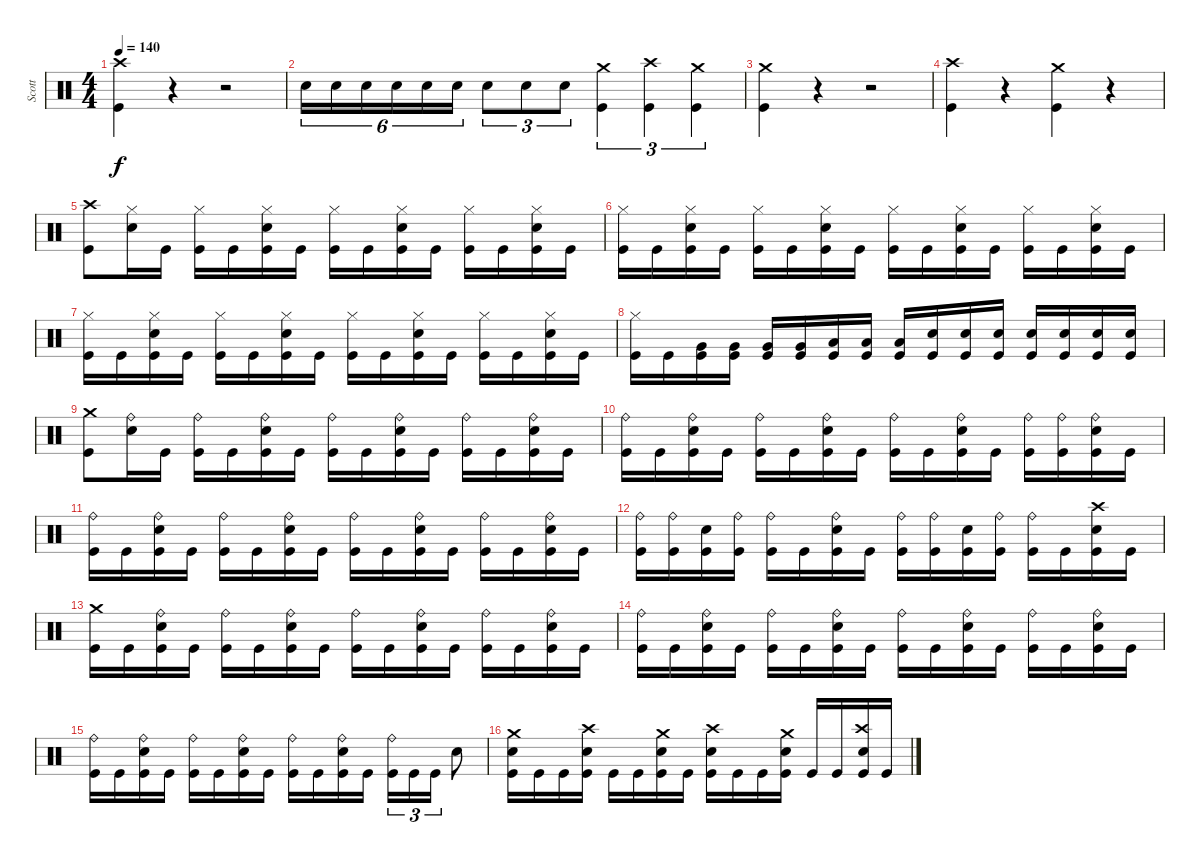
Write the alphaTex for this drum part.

\track ("Scott" "Scott") {instrument percussion}
\staff {score}
\articulation defaults
\ts (4 4)
\tempo 140
\clef neutral
\ks c
("Kick (hit)" "Crash high (hit)").4{dy f} r.4 r.2 |
"Snare (hit) 2".16{tu (6 4)} "Snare (hit) 2".16{tu (6 4)} "Snare (hit) 2".16{tu (6 4)} "Snare (hit) 2".16{tu (6 4)} "Snare (hit) 2".16{tu (6 4)} "Snare (hit) 2".16{tu (6 4)} "Snare (hit) 2".8{tu (3 2)} "Snare (hit) 2".8{tu (3 2)} "Snare (hit) 2".8{tu (3 2)} ("Kick (hit)" "Crash medium (hit)").4{tu (3 2)} ("Kick (hit)" "Crash high (hit)").4{tu (3 2)} ("Kick (hit)" "Crash medium (hit)").4{tu (3 2)} |
("Kick (hit)" "Crash medium (hit)").4 r.4 r.2 |
("Kick (hit)" "Crash high (hit)").4 r.4 ("Kick (hit)" "Crash medium (hit)").4 r.4 |
("Kick (hit)" "Crash high (hit)").8 ("Snare (hit) 2" "Hi-Hat (closed)").16 "Kick (hit)".16 ("Kick (hit)" "Hi-Hat (closed)").16 "Kick (hit)".16 ("Kick (hit)" "Snare (hit) 2" "Hi-Hat (closed)").16 "Kick (hit)".16 ("Kick (hit)" "Hi-Hat (closed)").16 "Kick (hit)".16 ("Kick (hit)" "Snare (hit) 2" "Hi-Hat (closed)").16 "Kick (hit)".16 ("Kick (hit)" "Hi-Hat (closed)").16 "Kick (hit)".16 ("Kick (hit)" "Snare (hit) 2" "Hi-Hat (closed)").16 "Kick (hit)".16 |
("Kick (hit)" "Hi-Hat (closed)").16 "Kick (hit)".16 ("Kick (hit)" "Snare (hit) 2" "Hi-Hat (closed)").16 "Kick (hit)".16 ("Kick (hit)" "Hi-Hat (closed)").16 "Kick (hit)".16 ("Kick (hit)" "Snare (hit) 2" "Hi-Hat (closed)").16 "Kick (hit)".16 ("Kick (hit)" "Hi-Hat (closed)").16 "Kick (hit)".16 ("Kick (hit)" "Snare (hit) 2" "Hi-Hat (closed)").16 "Kick (hit)".16 ("Kick (hit)" "Hi-Hat (closed)").16 "Kick (hit)".16 ("Kick (hit)" "Snare (hit) 2" "Hi-Hat (closed)").16 "Kick (hit)".16 |
("Kick (hit)" "Hi-Hat (closed)").16 "Kick (hit)".16 ("Kick (hit)" "Snare (hit) 2" "Hi-Hat (closed)").16 "Kick (hit)".16 ("Kick (hit)" "Hi-Hat (closed)").16 "Kick (hit)".16 ("Kick (hit)" "Snare (hit) 2" "Hi-Hat (closed)").16 "Kick (hit)".16 ("Kick (hit)" "Hi-Hat (closed)").16 "Kick (hit)".16 ("Kick (hit)" "Snare (hit) 2" "Hi-Hat (closed)").16 "Kick (hit)".16 ("Kick (hit)" "Hi-Hat (closed)").16 "Kick (hit)".16 ("Kick (hit)" "Snare (hit) 2" "Hi-Hat (closed)").16 "Kick (hit)".16 |
("Kick (hit)" "Hi-Hat (closed)").16 "Kick (hit)".16 ("Kick (hit)" "Very Low Tom (hit)").16 ("Kick (hit)" "Very Low Tom (hit)").16 ("Kick (hit)" "Very Low Tom (hit)").16 ("Kick (hit)" "Very Low Tom (hit)").16 ("Kick (hit)" "Low Tom (hit)").16 ("Kick (hit)" "Low Tom (hit)").16 ("Kick (hit)" "Low Tom (hit)").16 ("Kick (hit)" "Snare (hit) 2").16 ("Kick (hit)" "Snare (hit) 2").16 ("Kick (hit)" "Snare (hit) 2").16 ("Kick (hit)" "Snare (hit) 2").16 ("Kick (hit)" "Snare (hit) 2").16 ("Kick (hit)" "Snare (hit) 2").16 ("Kick (hit)" "Snare (hit) 2").16 |
("Kick (hit)" "Crash medium (hit)").8 ("Snare (hit) 2" "Ride (bell)").16 "Kick (hit)".16 ("Kick (hit)" "Ride (bell)").16 "Kick (hit)".16 ("Kick (hit)" "Snare (hit) 2" "Ride (bell)").16 "Kick (hit)".16 ("Kick (hit)" "Ride (bell)").16 "Kick (hit)".16 ("Kick (hit)" "Snare (hit) 2" "Ride (bell)").16 "Kick (hit)".16 ("Kick (hit)" "Ride (bell)").16 "Kick (hit)".16 ("Kick (hit)" "Snare (hit) 2" "Ride (bell)").16 "Kick (hit)".16 |
("Kick (hit)" "Ride (bell)").16 "Kick (hit)".16 ("Kick (hit)" "Snare (hit) 2" "Ride (bell)").16 "Kick (hit)".16 ("Kick (hit)" "Ride (bell)").16 "Kick (hit)".16 ("Kick (hit)" "Snare (hit) 2" "Ride (bell)").16 "Kick (hit)".16 ("Kick (hit)" "Ride (bell)").16 "Kick (hit)".16 ("Kick (hit)" "Snare (hit) 2" "Ride (bell)").16 "Kick (hit)".16 ("Kick (hit)" "Ride (bell)").16 ("Kick (hit)" "Ride (bell)").16 ("Kick (hit)" "Snare (hit) 2" "Ride (bell)").16 "Kick (hit)".16 |
("Kick (hit)" "Ride (bell)").16 "Kick (hit)".16 ("Kick (hit)" "Snare (hit) 2" "Ride (bell)").16 "Kick (hit)".16 ("Kick (hit)" "Ride (bell)").16 "Kick (hit)".16 ("Kick (hit)" "Snare (hit) 2" "Ride (bell)").16 "Kick (hit)".16 ("Kick (hit)" "Ride (bell)").16 "Kick (hit)".16 ("Kick (hit)" "Snare (hit) 2" "Ride (bell)").16 "Kick (hit)".16 ("Kick (hit)" "Ride (bell)").16 "Kick (hit)".16 ("Kick (hit)" "Snare (hit) 2" "Ride (bell)").16 "Kick (hit)".16 |
("Kick (hit)" "Ride (bell)").16 ("Kick (hit)" "Ride (bell)").16 ("Kick (hit)" "Snare (hit) 2").16 ("Kick (hit)" "Ride (bell)").16 ("Kick (hit)" "Ride (bell)").16 "Kick (hit)".16 ("Kick (hit)" "Snare (hit) 2" "Ride (bell)").16 "Kick (hit)".16 ("Kick (hit)" "Ride (bell)").16 ("Kick (hit)" "Ride (bell)").16 ("Kick (hit)" "Snare (hit) 2").16 ("Kick (hit)" "Ride (bell)").16 ("Kick (hit)" "Ride (bell)").16 "Kick (hit)".16 ("Kick (hit)" "Snare (hit) 2" "Crash high (hit)").16 "Kick (hit)".16 |
("Kick (hit)" "Crash medium (hit)").16 "Kick (hit)".16 ("Kick (hit)" "Snare (hit) 2" "Ride (bell)").16 "Kick (hit)".16 ("Kick (hit)" "Ride (bell)").16 "Kick (hit)".16 ("Kick (hit)" "Snare (hit) 2" "Ride (bell)").16 "Kick (hit)".16 ("Kick (hit)" "Ride (bell)").16 "Kick (hit)".16 ("Kick (hit)" "Snare (hit) 2" "Ride (bell)").16 "Kick (hit)".16 ("Kick (hit)" "Ride (bell)").16 "Kick (hit)".16 ("Kick (hit)" "Snare (hit) 2" "Ride (bell)").16 "Kick (hit)".16 |
("Kick (hit)" "Ride (bell)").16 "Kick (hit)".16 ("Kick (hit)" "Snare (hit) 2" "Ride (bell)").16 "Kick (hit)".16 ("Kick (hit)" "Ride (bell)").16 "Kick (hit)".16 ("Kick (hit)" "Snare (hit) 2" "Ride (bell)").16 "Kick (hit)".16 ("Kick (hit)" "Ride (bell)").16 "Kick (hit)".16 ("Kick (hit)" "Snare (hit) 2" "Ride (bell)").16 "Kick (hit)".16 ("Kick (hit)" "Ride (bell)").16 "Kick (hit)".16 ("Kick (hit)" "Snare (hit) 2" "Ride (bell)").16 "Kick (hit)".16 |
("Kick (hit)" "Ride (bell)").16 "Kick (hit)".16 ("Kick (hit)" "Snare (hit) 2" "Ride (bell)").16 "Kick (hit)".16 ("Kick (hit)" "Ride (bell)").16 "Kick (hit)".16 ("Kick (hit)" "Snare (hit) 2" "Ride (bell)").16 "Kick (hit)".16 ("Kick (hit)" "Ride (bell)").16 "Kick (hit)".16 ("Kick (hit)" "Snare (hit) 2" "Ride (bell)").16 "Kick (hit)".16 ("Kick (hit)" "Ride (bell)").16{tu (3 2)} "Kick (hit)".16{tu (3 2)} "Kick (hit)".16{tu (3 2)} "Snare (hit) 2".8 |
("Kick (hit)" "Snare (hit) 2" "Crash medium (hit)").16 "Kick (hit)".16 "Kick (hit)".16 ("Kick (hit)" "Snare (hit) 2" "Crash high (hit)").16 "Kick (hit)".16 "Kick (hit)".16 ("Kick (hit)" "Snare (hit) 2" "Crash medium (hit)").16 "Kick (hit)".16 ("Kick (hit)" "Snare (hit) 2" "Crash high (hit)").16 "Kick (hit)".16 "Kick (hit)".16 ("Kick (hit)" "Snare (hit) 2" "Crash medium (hit)").16 "Kick (hit)".16 "Kick (hit)".16 ("Kick (hit)" "Snare (hit) 2" "Crash high (hit)").16 "Kick (hit)".16
